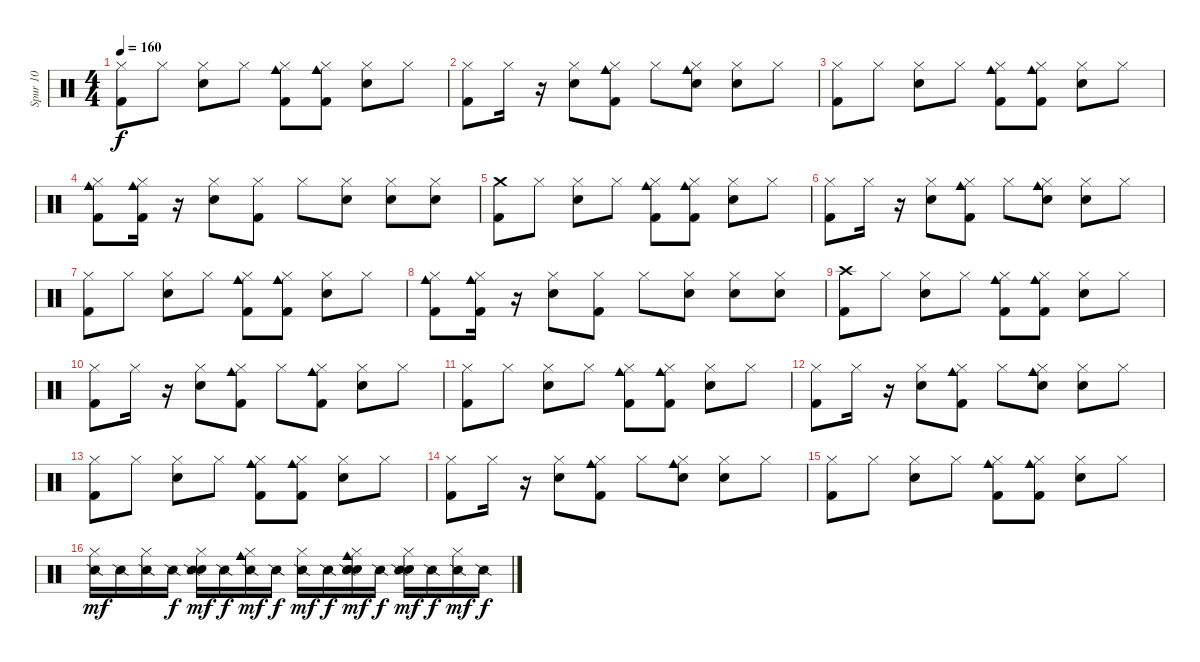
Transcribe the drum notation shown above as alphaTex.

\track ("Spur 10" "Spur 10") {instrument percussion}
\staff {score}
\articulation defaults
\ts (4 4)
\tempo 160
\clef neutral
\ks c
("Hi-Hat (closed)" "Kick (hit) 2").8{dy f} "Hi-Hat (closed)".8 ("Hi-Hat (closed)" "Snare (hit) 2").8 "Hi-Hat (closed)".8 ("Hi-Hat (closed)" "Cowbell medium (hit)" "Kick (hit) 2").8 ("Hi-Hat (closed)" "Cowbell medium (hit)" "Kick (hit) 2").8 ("Hi-Hat (closed)" "Snare (hit) 2").8 "Hi-Hat (closed)".8 |
("Hi-Hat (closed)" "Kick (hit) 2").8 "Hi-Hat (closed)".16 r.16 ("Hi-Hat (closed)" "Snare (hit) 2").8 ("Hi-Hat (closed)" "Kick (hit) 2" "Cowbell medium (hit)").8 "Hi-Hat (closed)".8 ("Hi-Hat (closed)" "Hand Clap (hit)" "Cowbell medium (hit)").8 ("Hi-Hat (closed)" "Snare (hit) 2").8 "Hi-Hat (closed)".8 |
("Hi-Hat (closed)" "Kick (hit) 2").8 "Hi-Hat (closed)".8 ("Hi-Hat (closed)" "Snare (hit) 2").8 "Hi-Hat (closed)".8 ("Hi-Hat (closed)" "Cowbell medium (hit)" "Kick (hit) 2").8 ("Hi-Hat (closed)" "Cowbell medium (hit)" "Kick (hit) 2").8 ("Hi-Hat (closed)" "Snare (hit) 2").8 "Hi-Hat (closed)".8 |
("Cowbell medium (hit)" "Hi-Hat (closed)" "Kick (hit) 2").8 ("Cowbell medium (hit)" "Kick (hit) 2" "Hi-Hat (closed)").16 r.16 ("Hi-Hat (closed)" "Snare (hit) 2").8 ("Hi-Hat (closed)" "Kick (hit) 2").8 "Hi-Hat (closed)".8 ("Hi-Hat (closed)" "Snare (hit) 2").8 ("Hi-Hat (closed)" "Snare (hit) 2").8 ("Snare (hit) 2" "Hi-Hat (closed)").8 |
("Crash medium (hit)" "Kick (hit) 2").8 "Hi-Hat (closed)".8 ("Hi-Hat (closed)" "Snare (hit) 2").8 "Hi-Hat (closed)".8 ("Hi-Hat (closed)" "Cowbell medium (hit)" "Kick (hit) 2").8 ("Hi-Hat (closed)" "Cowbell medium (hit)" "Kick (hit) 2").8 ("Hi-Hat (closed)" "Snare (hit) 2").8 "Hi-Hat (closed)".8 |
("Hi-Hat (closed)" "Kick (hit) 2").8 "Hi-Hat (closed)".16 r.16 ("Hi-Hat (closed)" "Snare (hit) 2").8 ("Hi-Hat (closed)" "Kick (hit) 2" "Cowbell medium (hit)").8 "Hi-Hat (closed)".8 ("Hi-Hat (closed)" "Hand Clap (hit)" "Cowbell medium (hit)").8 ("Hi-Hat (closed)" "Snare (hit) 2").8 "Hi-Hat (closed)".8 |
("Hi-Hat (closed)" "Kick (hit) 2").8 "Hi-Hat (closed)".8 ("Hi-Hat (closed)" "Snare (hit) 2").8 "Hi-Hat (closed)".8 ("Hi-Hat (closed)" "Cowbell medium (hit)" "Kick (hit) 2").8 ("Hi-Hat (closed)" "Cowbell medium (hit)" "Kick (hit) 2").8 ("Hi-Hat (closed)" "Snare (hit) 2").8 "Hi-Hat (closed)".8 |
("Cowbell medium (hit)" "Hi-Hat (closed)" "Kick (hit) 2").8 ("Cowbell medium (hit)" "Kick (hit) 2" "Hi-Hat (closed)").16 r.16 ("Hi-Hat (closed)" "Snare (hit) 2").8 ("Hi-Hat (closed)" "Kick (hit) 2").8 "Hi-Hat (closed)".8 ("Hi-Hat (closed)" "Snare (hit) 2").8 ("Hi-Hat (closed)" "Snare (hit) 2").8 ("Snare (hit) 2" "Hi-Hat (closed)").8 |
("Crash high (hit)" "Kick (hit) 2").8 "Hi-Hat (closed)".8 ("Hi-Hat (closed)" "Snare (hit) 2").8 "Hi-Hat (closed)".8 ("Hi-Hat (closed)" "Cowbell medium (hit)" "Kick (hit) 2").8 ("Hi-Hat (closed)" "Cowbell medium (hit)" "Kick (hit) 2").8 ("Hi-Hat (closed)" "Snare (hit) 2").8 "Hi-Hat (closed)".8 |
("Hi-Hat (closed)" "Kick (hit) 2").8 "Hi-Hat (closed)".16 r.16 ("Hi-Hat (closed)" "Snare (hit) 2").8 ("Hi-Hat (closed)" "Kick (hit) 2" "Cowbell medium (hit)").8 "Hi-Hat (closed)".8 ("Hi-Hat (closed)" "Kick (hit) 2" "Cowbell medium (hit)").8 ("Hi-Hat (closed)" "Snare (hit) 2").8 "Hi-Hat (closed)".8 |
("Hi-Hat (closed)" "Kick (hit) 2").8 "Hi-Hat (closed)".8 ("Hi-Hat (closed)" "Snare (hit) 2").8 "Hi-Hat (closed)".8 ("Hi-Hat (closed)" "Cowbell medium (hit)" "Kick (hit) 2").8 ("Hi-Hat (closed)" "Cowbell medium (hit)" "Kick (hit) 2").8 ("Hi-Hat (closed)" "Snare (hit) 2").8 "Hi-Hat (closed)".8 |
("Hi-Hat (closed)" "Kick (hit) 2").8 "Hi-Hat (closed)".16 r.16 ("Hi-Hat (closed)" "Snare (hit) 2").8 ("Hi-Hat (closed)" "Kick (hit) 2" "Cowbell medium (hit)").8 "Hi-Hat (closed)".8 ("Hi-Hat (closed)" "Hand Clap (hit)" "Cowbell medium (hit)").8 ("Hi-Hat (closed)" "Snare (hit) 2").8 "Hi-Hat (closed)".8 |
("Hi-Hat (closed)" "Kick (hit) 2").8 "Hi-Hat (closed)".8 ("Hi-Hat (closed)" "Snare (hit) 2").8 "Hi-Hat (closed)".8 ("Hi-Hat (closed)" "Cowbell medium (hit)" "Kick (hit) 2").8 ("Hi-Hat (closed)" "Cowbell medium (hit)" "Kick (hit) 2").8 ("Hi-Hat (closed)" "Snare (hit) 2").8 "Hi-Hat (closed)".8 |
("Hi-Hat (closed)" "Kick (hit) 2").8 "Hi-Hat (closed)".16 r.16 ("Hi-Hat (closed)" "Snare (hit) 2").8 ("Hi-Hat (closed)" "Kick (hit) 2" "Cowbell medium (hit)").8 "Hi-Hat (closed)".8 ("Hi-Hat (closed)" "Hand Clap (hit)" "Cowbell medium (hit)").8 ("Hi-Hat (closed)" "Snare (hit) 2").8 "Hi-Hat (closed)".8 |
("Hi-Hat (closed)" "Kick (hit) 2").8 "Hi-Hat (closed)".8 ("Hi-Hat (closed)" "Snare (hit) 2").8 "Hi-Hat (closed)".8 ("Hi-Hat (closed)" "Cowbell medium (hit)" "Kick (hit) 2").8 ("Hi-Hat (closed)" "Cowbell medium (hit)" "Kick (hit) 2").8 ("Hi-Hat (closed)" "Snare (hit) 2").8 "Hi-Hat (closed)".8 |
("Hi-Hat (closed)" "Snare (side stick) 2").16{dy mf} "Snare (side stick) 2".16 ("Hi-Hat (closed)" "Snare (side stick) 2").16 "Snare (side stick) 2".16{dy f} ("Snare (hit) 2" "Hi-Hat (closed)" "Snare (side stick) 2").16{dy mf} "Snare (side stick) 2".16{dy f} ("Cowbell medium (hit)" "Hi-Hat (closed)" "Snare (side stick) 2").16{dy mf} "Snare (side stick) 2".16{dy f} ("Hi-Hat (closed)" "Snare (side stick) 2").16{dy mf} "Snare (side stick) 2".16{dy f} ("Cowbell medium (hit)" "Hi-Hat (closed)" "Hand Clap (hit)" "Snare (side stick) 2" "Hand Clap (hit)").16{dy mf} "Snare (side stick) 2".16{dy f} ("Hi-Hat (closed)" "Snare (hit) 2" "Snare (side stick) 2").16{dy mf} "Snare (side stick) 2".16{dy f} ("Hi-Hat (closed)" "Snare (side stick) 2").16{dy mf} "Snare (side stick) 2".16{dy f}
